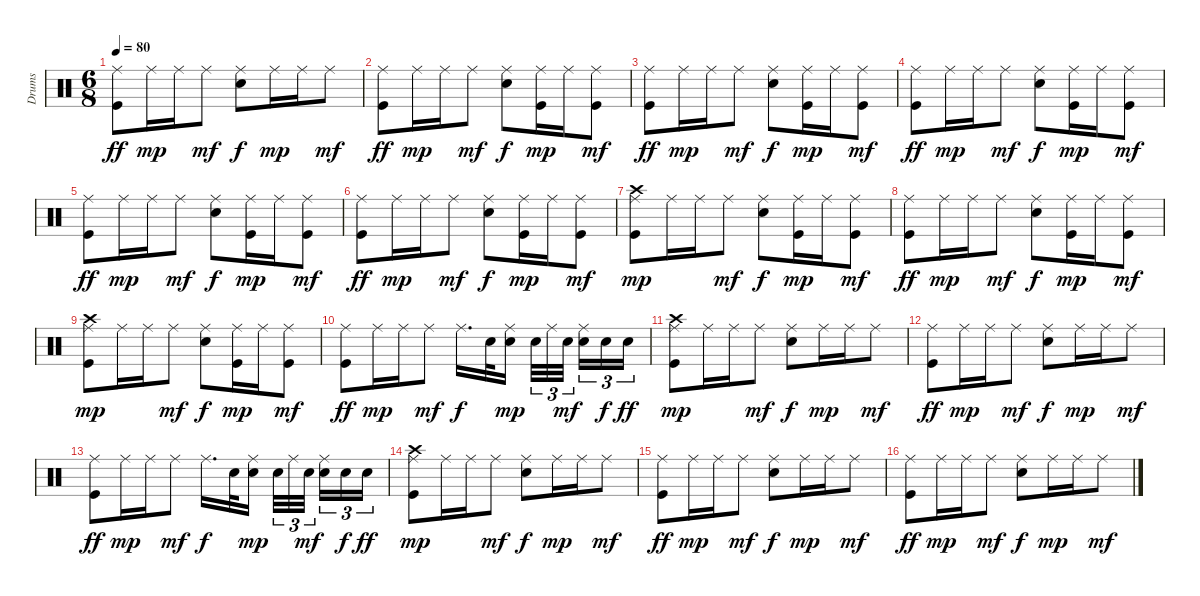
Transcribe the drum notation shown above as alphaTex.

\track ("Drums" "Drums") {instrument percussion}
\staff {score}
\articulation defaults
\ts (6 8)
\tempo 80
\clef neutral
\ks c
("Kick (hit)" "Ride (middle)").8{dy ff} "Ride (middle)".16{dy mp} "Ride (middle)".16 "Ride (middle)".8{dy mf} ("Ride (middle)" "Snare (hit) 2").8{dy f} "Ride (middle)".16{dy mp} "Ride (middle)".16 "Ride (middle)".8{dy mf} |
("Kick (hit)" "Ride (middle)").8{dy ff} "Ride (middle)".16{dy mp} "Ride (middle)".16 "Ride (middle)".8{dy mf} ("Ride (middle)" "Snare (hit) 2").8{dy f} ("Ride (middle)" "Kick (hit)").16{dy mp} "Ride (middle)".16 ("Ride (middle)" "Kick (hit)").8{dy mf} |
("Kick (hit)" "Ride (middle)").8{dy ff} "Ride (middle)".16{dy mp} "Ride (middle)".16 "Ride (middle)".8{dy mf} ("Ride (middle)" "Snare (hit) 2").8{dy f} ("Ride (middle)" "Kick (hit)").16{dy mp} "Ride (middle)".16 ("Ride (middle)" "Kick (hit)").8{dy mf} |
("Kick (hit)" "Ride (middle)").8{dy ff} "Ride (middle)".16{dy mp} "Ride (middle)".16 "Ride (middle)".8{dy mf} ("Ride (middle)" "Snare (hit) 2").8{dy f} ("Ride (middle)" "Kick (hit)").16{dy mp} "Ride (middle)".16 ("Ride (middle)" "Kick (hit)").8{dy mf} |
("Kick (hit)" "Ride (middle)").8{dy ff} "Ride (middle)".16{dy mp} "Ride (middle)".16 "Ride (middle)".8{dy mf} ("Ride (middle)" "Snare (hit) 2").8{dy f} ("Ride (middle)" "Kick (hit)").16{dy mp} "Ride (middle)".16 ("Ride (middle)" "Kick (hit)").8{dy mf} |
("Kick (hit)" "Ride (middle)").8{dy ff} "Ride (middle)".16{dy mp} "Ride (middle)".16 "Ride (middle)".8{dy mf} ("Ride (middle)" "Snare (hit) 2").8{dy f} ("Ride (middle)" "Kick (hit)").16{dy mp} "Ride (middle)".16 ("Ride (middle)" "Kick (hit)").8{dy mf} |
("Kick (hit)" "Ride (middle)" "Crash high (hit)").8{dy mp} "Ride (middle)".16 "Ride (middle)".16 "Ride (middle)".8{dy mf} ("Ride (middle)" "Snare (hit) 2").8{dy f} ("Ride (middle)" "Kick (hit)").16{dy mp} "Ride (middle)".16 ("Ride (middle)" "Kick (hit)").8{dy mf} |
("Kick (hit)" "Ride (middle)").8{dy ff} "Ride (middle)".16{dy mp} "Ride (middle)".16 "Ride (middle)".8{dy mf} ("Ride (middle)" "Snare (hit) 2").8{dy f} ("Ride (middle)" "Kick (hit)").16{dy mp} "Ride (middle)".16 ("Ride (middle)" "Kick (hit)").8{dy mf} |
("Kick (hit)" "Ride (middle)" "Crash high (hit)").8{dy mp} "Ride (middle)".16 "Ride (middle)".16 "Ride (middle)".8{dy mf} ("Ride (middle)" "Snare (hit) 2").8{dy f} ("Ride (middle)" "Kick (hit)").16{dy mp} "Ride (middle)".16 ("Ride (middle)" "Kick (hit)").8{dy mf} |
("Kick (hit)" "Ride (middle)").8{dy ff} "Ride (middle)".16{dy mp} "Ride (middle)".16 "Ride (middle)".8{dy mf} "Ride (middle)".16{d dy f} "Snare (hit) 2".32 ("Ride (middle)" "Snare (hit) 2").16{dy mp} "Snare (hit) 2".32{tu (3 2)} "Ride (middle)".32{tu (3 2)} "Snare (hit) 2".32{tu (3 2) dy mf} ("Ride (middle)" "Snare (hit) 2").16{tu (3 2)} "Snare (hit) 2".16{tu (3 2) dy f} "Snare (hit) 2".16{tu (3 2) dy ff} |
("Kick (hit)" "Ride (middle)" "Crash high (hit)").8{dy mp} "Ride (middle)".16 "Ride (middle)".16 "Ride (middle)".8{dy mf} ("Ride (middle)" "Snare (hit) 2").8{dy f} "Ride (middle)".16{dy mp} "Ride (middle)".16 "Ride (middle)".8{dy mf} |
("Kick (hit)" "Ride (middle)").8{dy ff} "Ride (middle)".16{dy mp} "Ride (middle)".16 "Ride (middle)".8{dy mf} ("Ride (middle)" "Snare (hit) 2").8{dy f} "Ride (middle)".16{dy mp} "Ride (middle)".16 "Ride (middle)".8{dy mf} |
("Kick (hit)" "Ride (middle)").8{dy ff} "Ride (middle)".16{dy mp} "Ride (middle)".16 "Ride (middle)".8{dy mf} "Ride (middle)".16{d dy f} "Snare (hit) 2".32 ("Ride (middle)" "Snare (hit) 2").16{dy mp} "Snare (hit) 2".32{tu (3 2)} "Ride (middle)".32{tu (3 2)} "Snare (hit) 2".32{tu (3 2) dy mf} ("Ride (middle)" "Snare (hit) 2").16{tu (3 2)} "Snare (hit) 2".16{tu (3 2) dy f} "Snare (hit) 2".16{tu (3 2) dy ff} |
("Kick (hit)" "Ride (middle)" "Crash high (hit)").8{dy mp} "Ride (middle)".16 "Ride (middle)".16 "Ride (middle)".8{dy mf} ("Ride (middle)" "Snare (hit) 2").8{dy f} "Ride (middle)".16{dy mp} "Ride (middle)".16 "Ride (middle)".8{dy mf} |
("Kick (hit)" "Ride (middle)").8{dy ff} "Ride (middle)".16{dy mp} "Ride (middle)".16 "Ride (middle)".8{dy mf} ("Ride (middle)" "Snare (hit) 2").8{dy f} "Ride (middle)".16{dy mp} "Ride (middle)".16 "Ride (middle)".8{dy mf} |
("Kick (hit)" "Ride (middle)").8{dy ff} "Ride (middle)".16{dy mp} "Ride (middle)".16 "Ride (middle)".8{dy mf} ("Ride (middle)" "Snare (hit) 2").8{dy f} "Ride (middle)".16{dy mp} "Ride (middle)".16 "Ride (middle)".8{dy mf}
